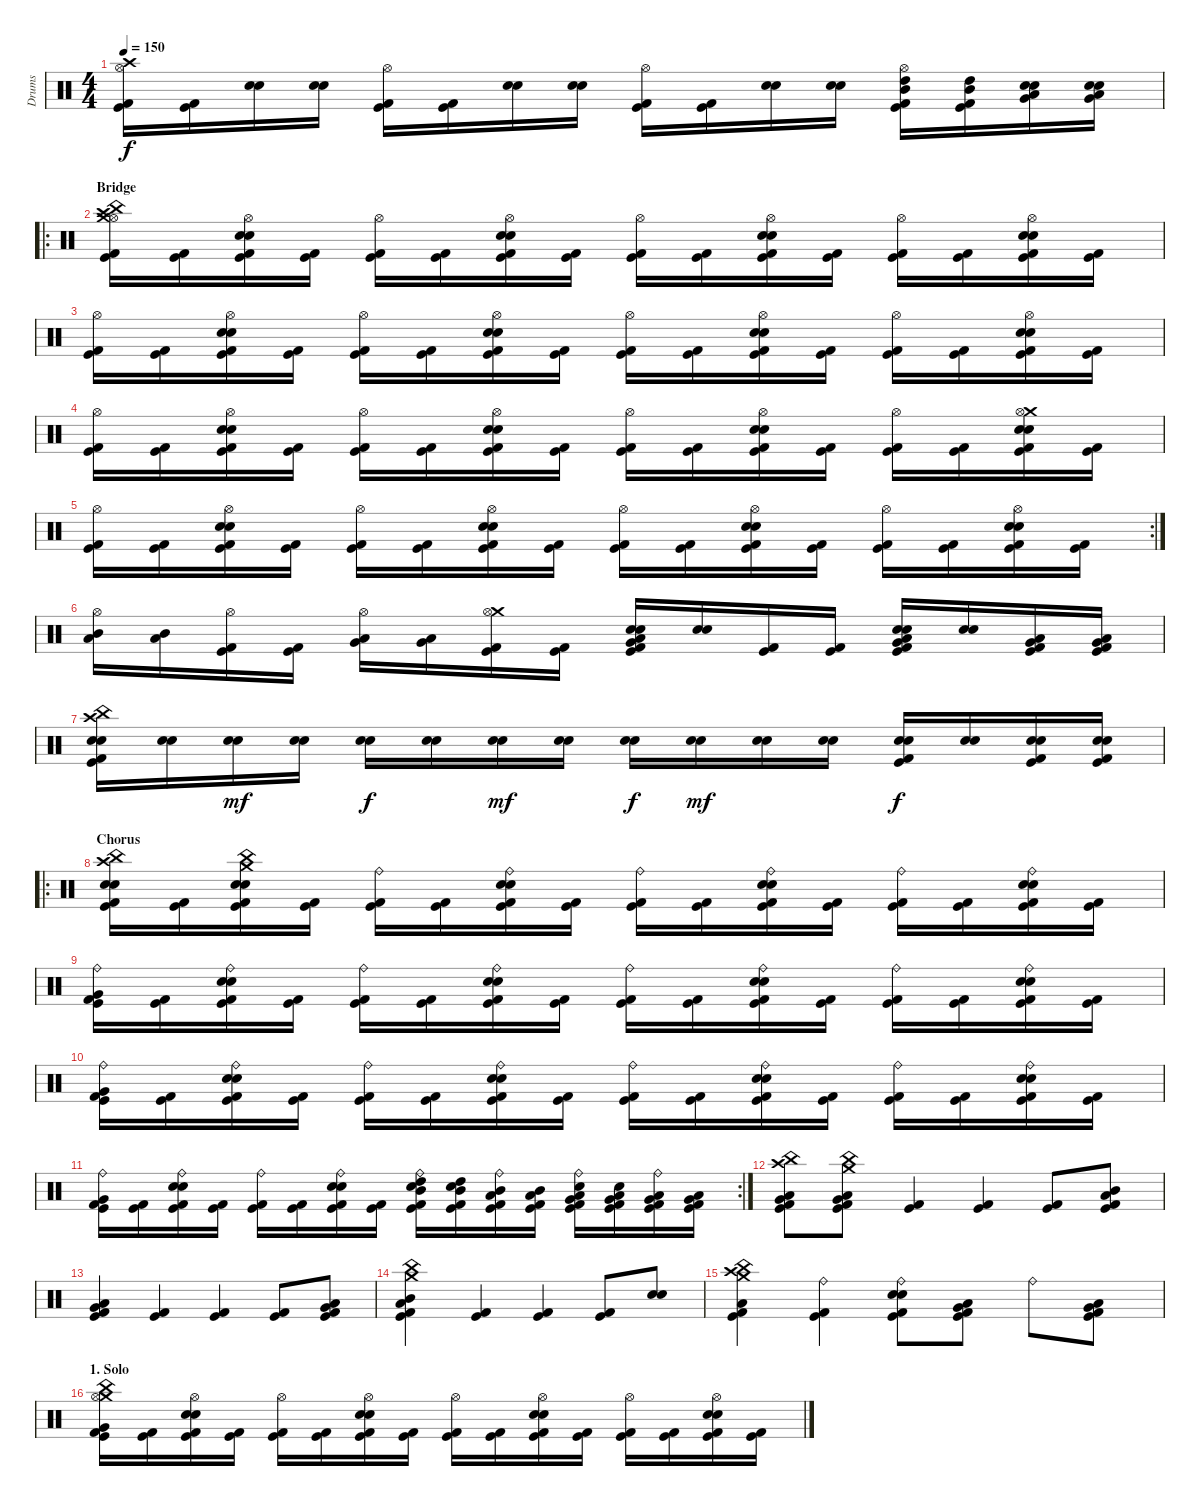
\track ("Drums" "Drums") {instrument percussion}
\staff {score}
\articulation defaults
\ts (4 4)
\tempo 150
\clef neutral
\ks c
("Crash high (hit)" "Hi-Hat (open)" "Kick (hit) 2" "Kick (hit)").16{dy f} ("Kick (hit)" "Kick (hit) 2").16 ("Snare (hit) 2" "Electric Snare (hit)").16 ("Snare (hit) 2" "Electric Snare (hit)").16 ("Hi-Hat (open)" "Kick (hit)" "Kick (hit) 2").16 ("Kick (hit)" "Kick (hit) 2").16 ("Snare (hit) 2" "Electric Snare (hit)").16 ("Snare (hit) 2" "Electric Snare (hit)").16 ("Hi-Hat (open)" "Kick (hit)" "Kick (hit) 2").16 ("Kick (hit)" "Kick (hit) 2").16 ("Snare (hit) 2" "Electric Snare (hit)").16 ("Snare (hit) 2" "Electric Snare (hit)").16 ("Hi-Hat (open)" "High Tom (hit)" "Mid Tom (hit)" "Kick (hit)" "Kick (hit) 2").16 ("High Tom (hit)" "Mid Tom (hit)" "Kick (hit)" "Kick (hit) 2").16 ("Low Tom (hit)" "Very Low Tom (hit)" "Snare (hit) 2" "Electric Snare (hit)").16 ("Low Tom (hit)" "Very Low Tom (hit)" "Snare (hit) 2" "Electric Snare (hit)").16 |
\ro
\section ("" "Bridge")
("China (hit)" "Hi-Hat (open)" "Crash high (hit)" "Crash medium (hit)" "Kick (hit) 2" "Kick (hit)").16 ("Kick (hit) 2" "Kick (hit)").16 ("Hi-Hat (open)" "Snare (hit) 2" "Electric Snare (hit)" "Kick (hit) 2" "Kick (hit)").16 ("Kick (hit) 2" "Kick (hit)").16 ("Hi-Hat (open)" "Kick (hit) 2" "Kick (hit)").16 ("Kick (hit) 2" "Kick (hit)").16 ("Hi-Hat (open)" "Snare (hit) 2" "Electric Snare (hit)" "Kick (hit)" "Kick (hit) 2").16 ("Kick (hit) 2" "Kick (hit)").16 ("Hi-Hat (open)" "Kick (hit) 2" "Kick (hit)").16 ("Kick (hit) 2" "Kick (hit)").16 ("Hi-Hat (open)" "Snare (hit) 2" "Electric Snare (hit)" "Kick (hit) 2" "Kick (hit)").16 ("Kick (hit) 2" "Kick (hit)").16 ("Hi-Hat (open)" "Kick (hit) 2" "Kick (hit)").16 ("Kick (hit) 2" "Kick (hit)").16 ("Hi-Hat (open)" "Snare (hit) 2" "Electric Snare (hit)" "Kick (hit)" "Kick (hit) 2").16 ("Kick (hit) 2" "Kick (hit)").16 |
("Hi-Hat (open)" "Kick (hit) 2" "Kick (hit)").16 ("Kick (hit) 2" "Kick (hit)").16 ("Hi-Hat (open)" "Snare (hit) 2" "Electric Snare (hit)" "Kick (hit) 2" "Kick (hit)").16 ("Kick (hit) 2" "Kick (hit)").16 ("Hi-Hat (open)" "Kick (hit) 2" "Kick (hit)").16 ("Kick (hit) 2" "Kick (hit)").16 ("Hi-Hat (open)" "Snare (hit) 2" "Electric Snare (hit)" "Kick (hit)" "Kick (hit) 2").16 ("Kick (hit) 2" "Kick (hit)").16 ("Hi-Hat (open)" "Kick (hit) 2" "Kick (hit)").16 ("Kick (hit) 2" "Kick (hit)").16 ("Hi-Hat (open)" "Snare (hit) 2" "Electric Snare (hit)" "Kick (hit) 2" "Kick (hit)").16 ("Kick (hit) 2" "Kick (hit)").16 ("Hi-Hat (open)" "Kick (hit) 2" "Kick (hit)").16 ("Kick (hit) 2" "Kick (hit)").16 ("Hi-Hat (open)" "Snare (hit) 2" "Electric Snare (hit)" "Kick (hit)" "Kick (hit) 2").16 ("Kick (hit) 2" "Kick (hit)").16 |
("Hi-Hat (open)" "Kick (hit) 2" "Kick (hit)").16 ("Kick (hit) 2" "Kick (hit)").16 ("Hi-Hat (open)" "Snare (hit) 2" "Electric Snare (hit)" "Kick (hit) 2" "Kick (hit)").16 ("Kick (hit) 2" "Kick (hit)").16 ("Hi-Hat (open)" "Kick (hit) 2" "Kick (hit)").16 ("Kick (hit) 2" "Kick (hit)").16 ("Hi-Hat (open)" "Snare (hit) 2" "Electric Snare (hit)" "Kick (hit)" "Kick (hit) 2").16 ("Kick (hit) 2" "Kick (hit)").16 ("Hi-Hat (open)" "Kick (hit) 2" "Kick (hit)").16 ("Kick (hit) 2" "Kick (hit)").16 ("Hi-Hat (open)" "Snare (hit) 2" "Electric Snare (hit)" "Kick (hit) 2" "Kick (hit)").16 ("Kick (hit) 2" "Kick (hit)").16 ("Hi-Hat (open)" "Kick (hit) 2" "Kick (hit)").16 ("Kick (hit) 2" "Kick (hit)").16 ("Crash medium (hit)" "Hi-Hat (open)" "Snare (hit) 2" "Electric Snare (hit)" "Kick (hit)" "Kick (hit) 2").16 ("Kick (hit) 2" "Kick (hit)").16 |
\rc 2
("Hi-Hat (open)" "Kick (hit) 2" "Kick (hit)").16 ("Kick (hit) 2" "Kick (hit)").16 ("Hi-Hat (open)" "Snare (hit) 2" "Electric Snare (hit)" "Kick (hit) 2" "Kick (hit)").16 ("Kick (hit) 2" "Kick (hit)").16 ("Hi-Hat (open)" "Kick (hit) 2" "Kick (hit)").16 ("Kick (hit) 2" "Kick (hit)").16 ("Hi-Hat (open)" "Snare (hit) 2" "Electric Snare (hit)" "Kick (hit)" "Kick (hit) 2").16 ("Kick (hit) 2" "Kick (hit)").16 ("Hi-Hat (open)" "Kick (hit) 2" "Kick (hit)").16 ("Kick (hit) 2" "Kick (hit)").16 ("Hi-Hat (open)" "Snare (hit) 2" "Electric Snare (hit)" "Kick (hit) 2" "Kick (hit)").16 ("Kick (hit) 2" "Kick (hit)").16 ("Hi-Hat (open)" "Kick (hit) 2" "Kick (hit)").16 ("Kick (hit) 2" "Kick (hit)").16 ("Hi-Hat (open)" "Snare (hit) 2" "Electric Snare (hit)" "Kick (hit)" "Kick (hit) 2").16 ("Kick (hit) 2" "Kick (hit)").16 |
("Hi-Hat (open)" "Low Tom (hit)" "Mid Tom (hit)").16 ("Low Tom (hit)" "Mid Tom (hit)").16 ("Hi-Hat (open)" "Kick (hit) 2" "Kick (hit)").16 ("Kick (hit) 2" "Kick (hit)").16 ("Hi-Hat (open)" "Very Low Tom (hit)" "Low Tom (hit)").16 ("Low Tom (hit)" "Very Low Tom (hit)").16 ("Crash medium (hit)" "Hi-Hat (open)" "Kick (hit) 2" "Kick (hit)").16 ("Kick (hit) 2" "Kick (hit)").16 ("Low Floor Tom (hit)" "Very Low Tom (hit)" "Electric Snare (hit)" "Snare (hit) 2" "Kick (hit) 2" "Kick (hit)").16 ("Electric Snare (hit)" "Snare (hit) 2").16 ("Kick (hit) 2" "Kick (hit)").16 ("Kick (hit) 2" "Kick (hit)").16 ("Low Tom (hit)" "Very Low Tom (hit)" "Snare (hit) 2" "Electric Snare (hit)" "Kick (hit)" "Kick (hit) 2").16 ("Electric Snare (hit)" "Snare (hit) 2").16 ("Very Low Tom (hit)" "Low Tom (hit)" "Kick (hit) 2" "Kick (hit)").16 ("Very Low Tom (hit)" "Low Tom (hit)" "Kick (hit) 2" "Kick (hit)").16 |
("China (hit)" "Crash high (hit)" "Electric Snare (hit)" "Snare (hit) 2" "Kick (hit) 2" "Kick (hit)").16 ("Electric Snare (hit)" "Snare (hit) 2").16 ("Electric Snare (hit)" "Snare (hit) 2").16{dy mf} ("Electric Snare (hit)" "Snare (hit) 2").16 ("Electric Snare (hit)" "Snare (hit) 2").16{dy f} ("Electric Snare (hit)" "Snare (hit) 2").16 ("Electric Snare (hit)" "Snare (hit) 2").16{dy mf} ("Electric Snare (hit)" "Snare (hit) 2").16 ("Electric Snare (hit)" "Snare (hit) 2").16{dy f} ("Electric Snare (hit)" "Snare (hit) 2").16{dy mf} ("Electric Snare (hit)" "Snare (hit) 2").16 ("Electric Snare (hit)" "Snare (hit) 2").16 ("Electric Snare (hit)" "Snare (hit) 2" "Kick (hit)" "Kick (hit) 2").16{dy f} ("Electric Snare (hit)" "Snare (hit) 2").16 ("Electric Snare (hit)" "Snare (hit) 2" "Kick (hit)" "Kick (hit) 2").16 ("Electric Snare (hit)" "Snare (hit) 2" "Kick (hit)" "Kick (hit) 2").16 |
\ro
\section ("" "Chorus")
("Crash high (hit)" "China (hit)" "Electric Snare (hit)" "Snare (hit) 2" "Kick (hit) 2" "Kick (hit)").16 ("Kick (hit) 2" "Kick (hit)").16 ("Crash medium (hit)" "China (hit)" "Snare (hit) 2" "Electric Snare (hit)" "Kick (hit) 2" "Kick (hit)").16 ("Kick (hit) 2" "Kick (hit)").16 ("Ride (bell)" "Kick (hit) 2" "Kick (hit)").16 ("Kick (hit) 2" "Kick (hit)").16 ("Ride (bell)" "Snare (hit) 2" "Electric Snare (hit)" "Kick (hit)" "Kick (hit) 2").16 ("Kick (hit) 2" "Kick (hit)").16 ("Ride (bell)" "Kick (hit) 2" "Kick (hit)").16 ("Kick (hit) 2" "Kick (hit)").16 ("Ride (bell)" "Snare (hit) 2" "Electric Snare (hit)" "Kick (hit) 2" "Kick (hit)").16 ("Kick (hit) 2" "Kick (hit)").16 ("Ride (bell)" "Kick (hit) 2" "Kick (hit)").16 ("Kick (hit) 2" "Kick (hit)").16 ("Ride (bell)" "Snare (hit) 2" "Electric Snare (hit)" "Kick (hit)" "Kick (hit) 2").16 ("Kick (hit) 2" "Kick (hit)").16 |
("Ride (bell)" "Very Low Tom (hit)" "Kick (hit) 2" "Kick (hit)").16 ("Kick (hit) 2" "Kick (hit)").16 ("Ride (bell)" "Snare (hit) 2" "Electric Snare (hit)" "Kick (hit) 2" "Kick (hit)").16 ("Kick (hit) 2" "Kick (hit)").16 ("Ride (bell)" "Kick (hit) 2" "Kick (hit)").16 ("Kick (hit) 2" "Kick (hit)").16 ("Ride (bell)" "Snare (hit) 2" "Electric Snare (hit)" "Kick (hit)" "Kick (hit) 2").16 ("Kick (hit) 2" "Kick (hit)").16 ("Ride (bell)" "Kick (hit) 2" "Kick (hit)").16 ("Kick (hit) 2" "Kick (hit)").16 ("Ride (bell)" "Snare (hit) 2" "Electric Snare (hit)" "Kick (hit) 2" "Kick (hit)").16 ("Kick (hit) 2" "Kick (hit)").16 ("Ride (bell)" "Kick (hit) 2" "Kick (hit)").16 ("Kick (hit) 2" "Kick (hit)").16 ("Ride (bell)" "Snare (hit) 2" "Electric Snare (hit)" "Kick (hit)" "Kick (hit) 2").16 ("Kick (hit) 2" "Kick (hit)").16 |
("Ride (bell)" "Very Low Tom (hit)" "Kick (hit) 2" "Kick (hit)").16 ("Kick (hit) 2" "Kick (hit)").16 ("Ride (bell)" "Snare (hit) 2" "Electric Snare (hit)" "Kick (hit) 2" "Kick (hit)").16 ("Kick (hit) 2" "Kick (hit)").16 ("Ride (bell)" "Kick (hit) 2" "Kick (hit)").16 ("Kick (hit) 2" "Kick (hit)").16 ("Ride (bell)" "Snare (hit) 2" "Electric Snare (hit)" "Kick (hit)" "Kick (hit) 2").16 ("Kick (hit) 2" "Kick (hit)").16 ("Ride (bell)" "Kick (hit) 2" "Kick (hit)").16 ("Kick (hit) 2" "Kick (hit)").16 ("Ride (bell)" "Snare (hit) 2" "Electric Snare (hit)" "Kick (hit) 2" "Kick (hit)").16 ("Kick (hit) 2" "Kick (hit)").16 ("Ride (bell)" "Kick (hit) 2" "Kick (hit)").16 ("Kick (hit) 2" "Kick (hit)").16 ("Ride (bell)" "Snare (hit) 2" "Electric Snare (hit)" "Kick (hit)" "Kick (hit) 2").16 ("Kick (hit) 2" "Kick (hit)").16 |
\rc 2
("Ride (bell)" "Very Low Tom (hit)" "Kick (hit) 2" "Kick (hit)").16 ("Kick (hit) 2" "Kick (hit)").16 ("Ride (bell)" "Snare (hit) 2" "Electric Snare (hit)" "Kick (hit) 2" "Kick (hit)").16 ("Kick (hit) 2" "Kick (hit)").16 ("Ride (bell)" "Kick (hit) 2" "Kick (hit)").16 ("Kick (hit) 2" "Kick (hit)").16 ("Ride (bell)" "Snare (hit) 2" "Electric Snare (hit)" "Kick (hit)" "Kick (hit) 2").16 ("Kick (hit) 2" "Kick (hit)").16 ("Electric Snare (hit)" "Ride (bell)" "High Tom (hit)" "Mid Tom (hit)" "Kick (hit) 2" "Kick (hit)").16 ("Electric Snare (hit)" "High Tom (hit)" "Mid Tom (hit)" "Kick (hit) 2" "Kick (hit)").16 ("Ride (bell)" "Mid Tom (hit)" "Low Tom (hit)" "Kick (hit) 2" "Kick (hit)").16 ("Mid Tom (hit)" "Low Tom (hit)" "Kick (hit) 2" "Kick (hit)").16 ("Snare (hit) 2" "Ride (bell)" "Low Tom (hit)" "Very Low Tom (hit)" "Kick (hit) 2" "Kick (hit)").16 ("Snare (hit) 2" "Low Tom (hit)" "Very Low Tom (hit)" "Kick (hit) 2" "Kick (hit)").16 ("Ride (bell)" "Very Low Tom (hit)" "Low Floor Tom (hit)" "Kick (hit)" "Kick (hit) 2").16 ("Very Low Tom (hit)" "Low Floor Tom (hit)" "Kick (hit) 2" "Kick (hit)").16 |
("Crash high (hit)" "China (hit)" "Low Tom (hit)" "Very Low Tom (hit)" "Kick (hit) 2" "Kick (hit)").8 ("Crash medium (hit)" "China (hit)" "Low Tom (hit)" "Very Low Tom (hit)" "Kick (hit) 2" "Kick (hit)").8 ("Kick (hit) 2" "Kick (hit)").4 ("Kick (hit) 2" "Kick (hit)").4 ("Kick (hit) 2" "Kick (hit)").8 ("Mid Tom (hit)" "Low Tom (hit)" "Kick (hit)" "Kick (hit) 2").8 |
("Very Low Tom (hit)" "Low Tom (hit)" "Kick (hit)" "Kick (hit) 2").4 ("Kick (hit) 2" "Kick (hit)").4 ("Kick (hit)" "Kick (hit) 2").4 ("Kick (hit) 2" "Kick (hit)").8 ("Very Low Tom (hit)" "Low Tom (hit)" "Kick (hit) 2" "Kick (hit)").8 |
("Crash medium (hit)" "China (hit)" "Mid Tom (hit)" "Low Tom (hit)" "Kick (hit)" "Kick (hit) 2").4 ("Kick (hit) 2" "Kick (hit)").4 ("Kick (hit) 2" "Kick (hit)").4 ("Kick (hit)" "Kick (hit) 2").8 ("Electric Snare (hit)" "Snare (hit) 2").8 |
("Crash high (hit)" "Crash medium (hit)" "China (hit)" "Low Tom (hit)" "Kick (hit) 2" "Kick (hit)").4 ("Ride (bell)" "Kick (hit)" "Kick (hit) 2").4 ("Ride (bell)" "Kick (hit) 2" "Snare (hit) 2" "Electric Snare (hit)" "Kick (hit)").8 ("Very Low Tom (hit)" "Low Tom (hit)" "Kick (hit) 2" "Kick (hit)").8 "Ride (bell)".8 ("Very Low Tom (hit)" "Low Tom (hit)" "Kick (hit) 2" "Kick (hit)").8 |
\section ("" "1. Solo")
("Crash medium (hit)" "Hi-Hat (open)" "China (hit)" "Very Low Tom (hit)" "Kick (hit) 2" "Kick (hit)").16 ("Kick (hit) 2" "Kick (hit)").16 ("Hi-Hat (open)" "Snare (hit) 2" "Electric Snare (hit)" "Kick (hit) 2" "Kick (hit)").16 ("Kick (hit) 2" "Kick (hit)").16 ("Hi-Hat (open)" "Kick (hit) 2" "Kick (hit)").16 ("Kick (hit) 2" "Kick (hit)").16 ("Hi-Hat (open)" "Snare (hit) 2" "Electric Snare (hit)" "Kick (hit)" "Kick (hit) 2").16 ("Kick (hit) 2" "Kick (hit)").16 ("Hi-Hat (open)" "Kick (hit) 2" "Kick (hit)").16 ("Kick (hit) 2" "Kick (hit)").16 ("Hi-Hat (open)" "Snare (hit) 2" "Electric Snare (hit)" "Kick (hit) 2" "Kick (hit)").16 ("Kick (hit) 2" "Kick (hit)").16 ("Hi-Hat (open)" "Kick (hit) 2" "Kick (hit)").16 ("Kick (hit) 2" "Kick (hit)").16 ("Hi-Hat (open)" "Snare (hit) 2" "Electric Snare (hit)" "Kick (hit)" "Kick (hit) 2").16 ("Kick (hit) 2" "Kick (hit)").16
